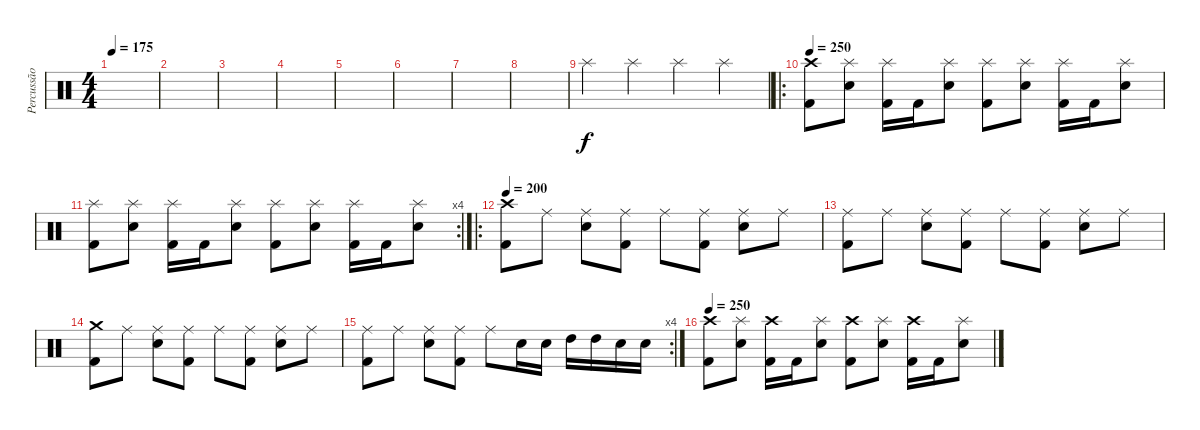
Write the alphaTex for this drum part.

\track ("Percussão" "Percussão") {instrument percussion}
\staff {score}
\articulation defaults
\ts (4 4)
\tempo 175
\clef neutral
\ks c
|
|
|
|
|
|
|
|
"Splash (hit)".4 "Splash (hit)".4 "Splash (hit)".4 "Splash (hit)".4 |
\ro
\tempo 250
("Crash high (hit)" "Kick (hit) 2").8 ("Splash (hit)" "Electric Snare (hit)").8 ("Splash (hit)" "Kick (hit) 2").16 "Kick (hit) 2".16 ("Splash (hit)" "Electric Snare (hit)").8 ("Splash (hit)" "Kick (hit) 2").8 ("Splash (hit)" "Electric Snare (hit)").8 ("Splash (hit)" "Kick (hit) 2").16 "Kick (hit) 2".16 ("Splash (hit)" "Electric Snare (hit)").8 |
\rc 4
("Splash (hit)" "Kick (hit) 2").8 ("Splash (hit)" "Electric Snare (hit)").8 ("Splash (hit)" "Kick (hit) 2").16 "Kick (hit) 2".16 ("Splash (hit)" "Electric Snare (hit)").8 ("Splash (hit)" "Kick (hit) 2").8 ("Splash (hit)" "Electric Snare (hit)").8 ("Splash (hit)" "Kick (hit) 2").16 "Kick (hit) 2".16 ("Splash (hit)" "Electric Snare (hit)").8 |
\ro
\tempo 200
("Crash high (hit)" "Kick (hit) 2").8 "Ride (middle)".8 ("Ride (middle)" "Electric Snare (hit)").8 ("Ride (middle)" "Kick (hit) 2").8 "Ride (middle)".8 ("Ride (middle)" "Kick (hit) 2").8 ("Ride (middle)" "Electric Snare (hit)").8 "Ride (middle)".8 |
("Ride (middle)" "Kick (hit) 2").8 "Ride (middle)".8 ("Ride (middle)" "Electric Snare (hit)").8 ("Ride (middle)" "Kick (hit) 2").8 "Ride (middle)".8 ("Ride (middle)" "Kick (hit) 2").8 ("Ride (middle)" "Electric Snare (hit)").8 "Ride (middle)".8 |
("Crash medium (hit)" "Kick (hit) 2").8 "Ride (middle)".8 ("Ride (middle)" "Electric Snare (hit)").8 ("Ride (middle)" "Kick (hit) 2").8 "Ride (middle)".8 ("Ride (middle)" "Kick (hit) 2").8 ("Ride (middle)" "Electric Snare (hit)").8 "Ride (middle)".8 |
\rc 4
("Ride (middle)" "Kick (hit) 2").8 "Ride (middle)".8 ("Ride (middle)" "Electric Snare (hit)").8 ("Ride (middle)" "Kick (hit) 2").8 "Ride (middle)".8 "Electric Snare (hit)".16 "Electric Snare (hit)".16 "High Tom (hit)".16 "High Tom (hit)".16 "Electric Snare (hit)".16 "Electric Snare (hit)".16 |
\tempo 250
("Crash high (hit)" "Kick (hit) 2").8 ("Splash (hit)" "Electric Snare (hit)").8 ("Crash high (hit)" "Kick (hit) 2").16 "Kick (hit) 2".16 ("Splash (hit)" "Electric Snare (hit)").8 ("Crash high (hit)" "Kick (hit) 2").8 ("Splash (hit)" "Electric Snare (hit)").8 ("Crash high (hit)" "Kick (hit) 2").16 "Kick (hit) 2".16 ("Splash (hit)" "Electric Snare (hit)").8
